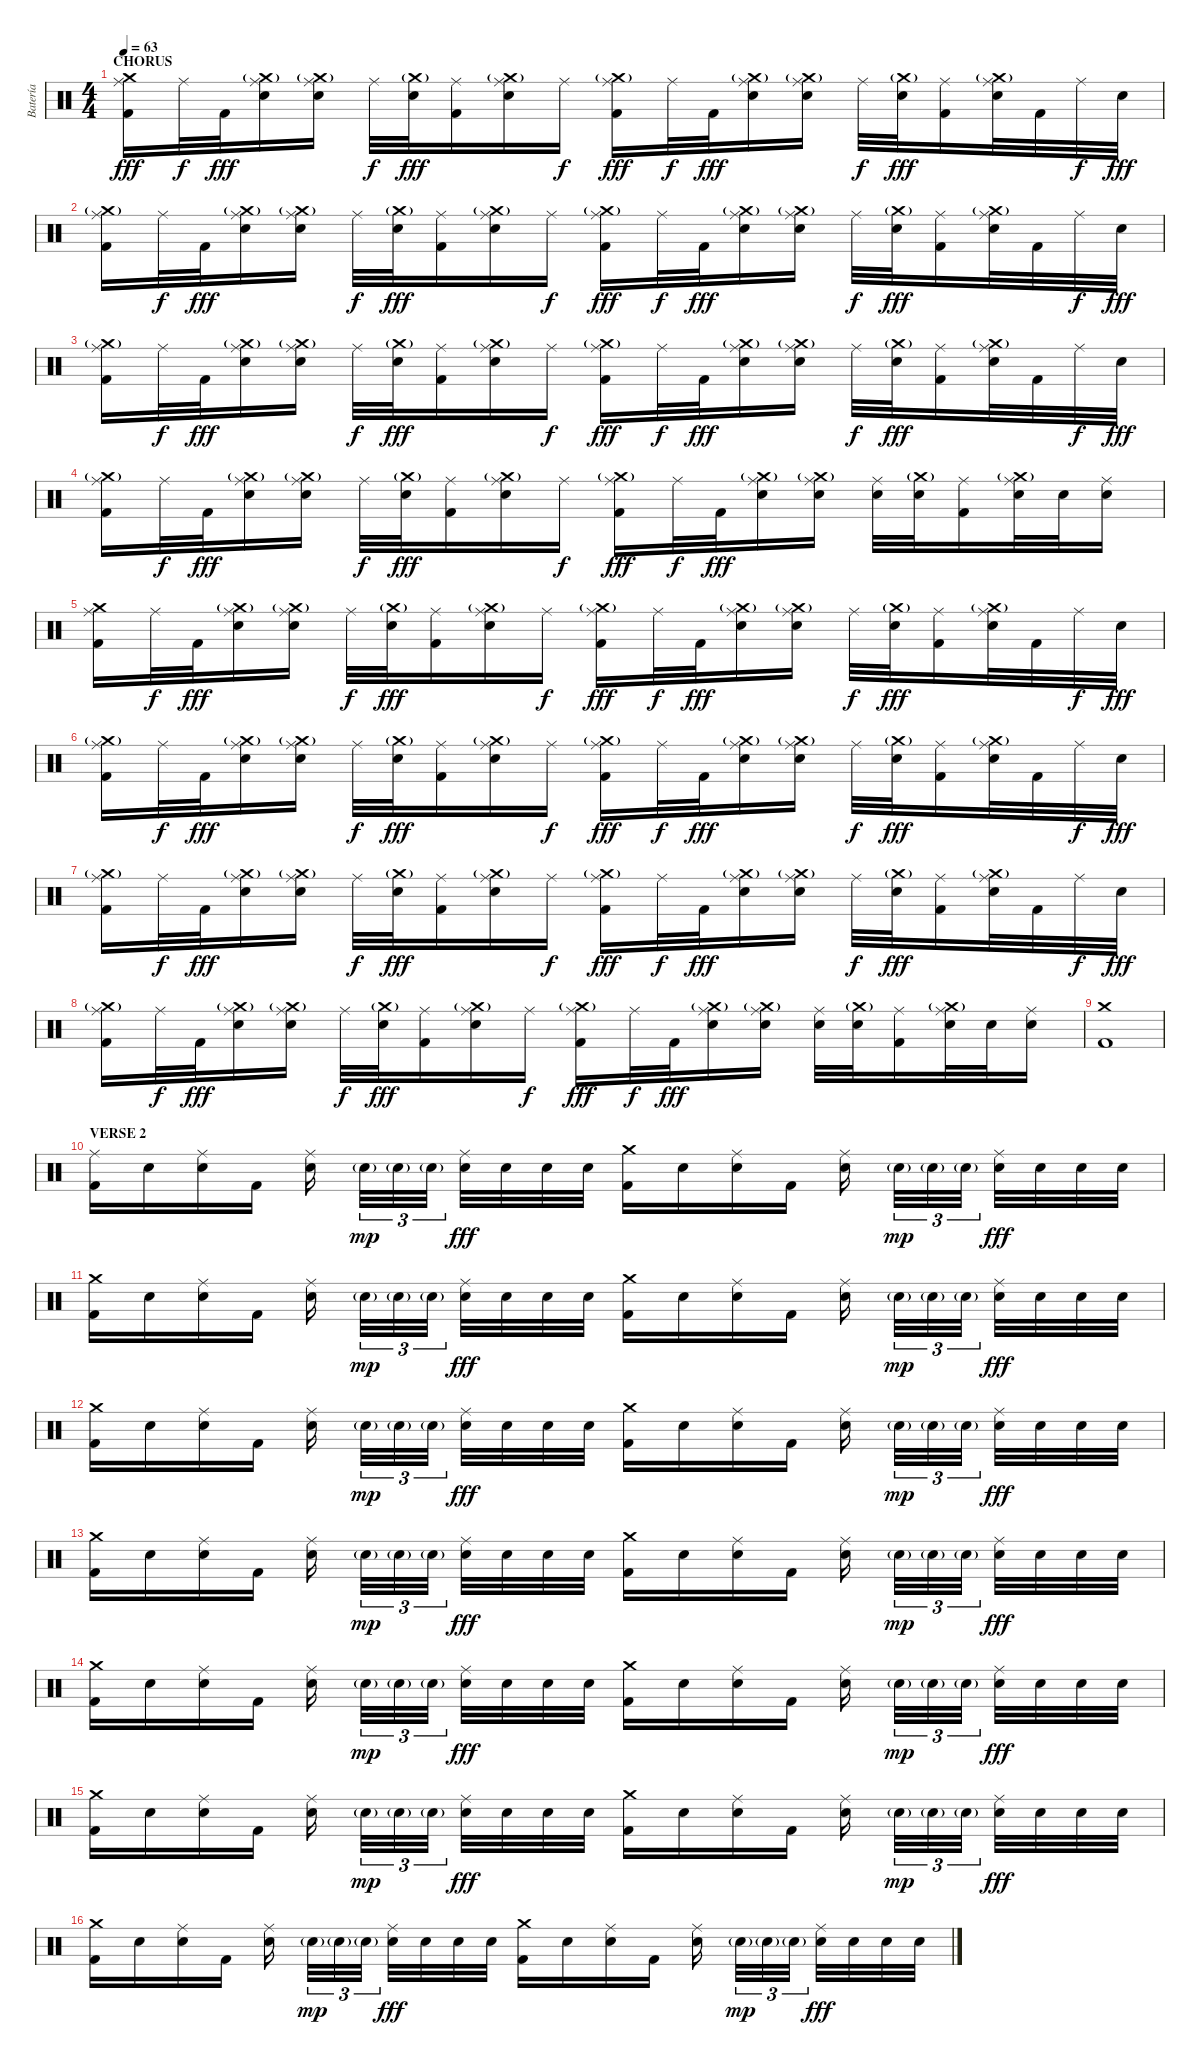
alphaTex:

\track ("Batería" "Batería") {instrument percussion}
\staff {score}
\articulation defaults
\ts (4 4)
\section ("" "CHORUS")
\tempo 63
\clef neutral
\ks c
("Crash medium (hit)" "Kick (hit) 2" "Ride (middle)").16{dy fff} "Ride (middle)".32{dy f} "Kick (hit) 2".32{dy fff} ("Crash medium (hit)"{g} "Electric Snare (hit)" "Ride (middle)").16 ("Crash medium (hit)"{g} "Electric Snare (hit)" "Ride (middle)").16 "Ride (middle)".32{dy f} ("Crash medium (hit)"{g} "Electric Snare (hit)").32{dy fff} ("Kick (hit) 2" "Ride (middle)").16 ("Crash medium (hit)"{g} "Electric Snare (hit)" "Ride (middle)").16 "Ride (middle)".16{dy f} ("Crash medium (hit)"{g} "Kick (hit) 2" "Ride (middle)").16{dy fff} "Ride (middle)".32{dy f} "Kick (hit) 2".32{dy fff} ("Crash medium (hit)"{g} "Electric Snare (hit)" "Ride (middle)").16 ("Crash medium (hit)"{g} "Electric Snare (hit)" "Ride (middle)").16 "Ride (middle)".32{dy f} ("Crash medium (hit)"{g} "Electric Snare (hit)").32{dy fff} ("Kick (hit) 2" "Ride (middle)").16 ("Crash medium (hit)"{g} "Electric Snare (hit)" "Ride (middle)").32 "Kick (hit) 2".32 "Ride (middle)".32{dy f} "Electric Snare (hit)".32{dy fff} |
("Crash medium (hit)"{g} "Kick (hit) 2" "Ride (middle)").16 "Ride (middle)".32{dy f} "Kick (hit) 2".32{dy fff} ("Crash medium (hit)"{g} "Electric Snare (hit)" "Ride (middle)").16 ("Crash medium (hit)"{g} "Electric Snare (hit)" "Ride (middle)").16 "Ride (middle)".32{dy f} ("Crash medium (hit)"{g} "Electric Snare (hit)").32{dy fff} ("Kick (hit) 2" "Ride (middle)").16 ("Crash medium (hit)"{g} "Electric Snare (hit)" "Ride (middle)").16 "Ride (middle)".16{dy f} ("Crash medium (hit)"{g} "Kick (hit) 2" "Ride (middle)").16{dy fff} "Ride (middle)".32{dy f} "Kick (hit) 2".32{dy fff} ("Crash medium (hit)"{g} "Electric Snare (hit)" "Ride (middle)").16 ("Crash medium (hit)"{g} "Electric Snare (hit)" "Ride (middle)").16 "Ride (middle)".32{dy f} ("Crash medium (hit)"{g} "Electric Snare (hit)").32{dy fff} ("Kick (hit) 2" "Ride (middle)").16 ("Crash medium (hit)"{g} "Electric Snare (hit)" "Ride (middle)").32 "Kick (hit) 2".32 "Ride (middle)".32{dy f} "Electric Snare (hit)".32{dy fff} |
("Crash medium (hit)"{g} "Kick (hit) 2" "Ride (middle)").16 "Ride (middle)".32{dy f} "Kick (hit) 2".32{dy fff} ("Crash medium (hit)"{g} "Electric Snare (hit)" "Ride (middle)").16 ("Crash medium (hit)"{g} "Electric Snare (hit)" "Ride (middle)").16 "Ride (middle)".32{dy f} ("Crash medium (hit)"{g} "Electric Snare (hit)").32{dy fff} ("Kick (hit) 2" "Ride (middle)").16 ("Crash medium (hit)"{g} "Electric Snare (hit)" "Ride (middle)").16 "Ride (middle)".16{dy f} ("Crash medium (hit)"{g} "Kick (hit) 2" "Ride (middle)").16{dy fff} "Ride (middle)".32{dy f} "Kick (hit) 2".32{dy fff} ("Crash medium (hit)"{g} "Electric Snare (hit)" "Ride (middle)").16 ("Crash medium (hit)"{g} "Electric Snare (hit)" "Ride (middle)").16 "Ride (middle)".32{dy f} ("Crash medium (hit)"{g} "Electric Snare (hit)").32{dy fff} ("Kick (hit) 2" "Ride (middle)").16 ("Crash medium (hit)"{g} "Electric Snare (hit)" "Ride (middle)").32 "Kick (hit) 2".32 "Ride (middle)".32{dy f} "Electric Snare (hit)".32{dy fff} |
("Crash medium (hit)"{g} "Kick (hit) 2" "Ride (middle)").16 "Ride (middle)".32{dy f} "Kick (hit) 2".32{dy fff} ("Crash medium (hit)"{g} "Electric Snare (hit)" "Ride (middle)").16 ("Crash medium (hit)"{g} "Electric Snare (hit)" "Ride (middle)").16 "Ride (middle)".32{dy f} ("Crash medium (hit)"{g} "Electric Snare (hit)").32{dy fff} ("Kick (hit) 2" "Ride (middle)").16 ("Crash medium (hit)"{g} "Electric Snare (hit)" "Ride (middle)").16 "Ride (middle)".16{dy f} ("Crash medium (hit)"{g} "Kick (hit) 2" "Ride (middle)").16{dy fff} "Ride (middle)".32{dy f} "Kick (hit) 2".32{dy fff} ("Crash medium (hit)"{g} "Electric Snare (hit)" "Ride (middle)").16 ("Crash medium (hit)"{g} "Electric Snare (hit)" "Ride (middle)").16 ("Electric Snare (hit)" "Ride (middle)").32 ("Crash medium (hit)"{g} "Electric Snare (hit)").32 ("Kick (hit) 2" "Ride (middle)").16 ("Crash medium (hit)"{g} "Electric Snare (hit)" "Ride (middle)").32 "Electric Snare (hit)".32 ("Electric Snare (hit)" "Ride (middle)").16 |
("Crash medium (hit)" "Kick (hit) 2" "Ride (middle)").16 "Ride (middle)".32{dy f} "Kick (hit) 2".32{dy fff} ("Crash medium (hit)"{g} "Electric Snare (hit)" "Ride (middle)").16 ("Crash medium (hit)"{g} "Electric Snare (hit)" "Ride (middle)").16 "Ride (middle)".32{dy f} ("Crash medium (hit)"{g} "Electric Snare (hit)").32{dy fff} ("Kick (hit) 2" "Ride (middle)").16 ("Crash medium (hit)"{g} "Electric Snare (hit)" "Ride (middle)").16 "Ride (middle)".16{dy f} ("Crash medium (hit)"{g} "Kick (hit) 2" "Ride (middle)").16{dy fff} "Ride (middle)".32{dy f} "Kick (hit) 2".32{dy fff} ("Crash medium (hit)"{g} "Electric Snare (hit)" "Ride (middle)").16 ("Crash medium (hit)"{g} "Electric Snare (hit)" "Ride (middle)").16 "Ride (middle)".32{dy f} ("Crash medium (hit)"{g} "Electric Snare (hit)").32{dy fff} ("Kick (hit) 2" "Ride (middle)").16 ("Crash medium (hit)"{g} "Electric Snare (hit)" "Ride (middle)").32 "Kick (hit) 2".32 "Ride (middle)".32{dy f} "Electric Snare (hit)".32{dy fff} |
("Crash medium (hit)"{g} "Kick (hit) 2" "Ride (middle)").16 "Ride (middle)".32{dy f} "Kick (hit) 2".32{dy fff} ("Crash medium (hit)"{g} "Electric Snare (hit)" "Ride (middle)").16 ("Crash medium (hit)"{g} "Electric Snare (hit)" "Ride (middle)").16 "Ride (middle)".32{dy f} ("Crash medium (hit)"{g} "Electric Snare (hit)").32{dy fff} ("Kick (hit) 2" "Ride (middle)").16 ("Crash medium (hit)"{g} "Electric Snare (hit)" "Ride (middle)").16 "Ride (middle)".16{dy f} ("Crash medium (hit)"{g} "Kick (hit) 2" "Ride (middle)").16{dy fff} "Ride (middle)".32{dy f} "Kick (hit) 2".32{dy fff} ("Crash medium (hit)"{g} "Electric Snare (hit)" "Ride (middle)").16 ("Crash medium (hit)"{g} "Electric Snare (hit)" "Ride (middle)").16 "Ride (middle)".32{dy f} ("Crash medium (hit)"{g} "Electric Snare (hit)").32{dy fff} ("Kick (hit) 2" "Ride (middle)").16 ("Crash medium (hit)"{g} "Electric Snare (hit)" "Ride (middle)").32 "Kick (hit) 2".32 "Ride (middle)".32{dy f} "Electric Snare (hit)".32{dy fff} |
("Crash medium (hit)"{g} "Kick (hit) 2" "Ride (middle)").16 "Ride (middle)".32{dy f} "Kick (hit) 2".32{dy fff} ("Crash medium (hit)"{g} "Electric Snare (hit)" "Ride (middle)").16 ("Crash medium (hit)"{g} "Electric Snare (hit)" "Ride (middle)").16 "Ride (middle)".32{dy f} ("Crash medium (hit)"{g} "Electric Snare (hit)").32{dy fff} ("Kick (hit) 2" "Ride (middle)").16 ("Crash medium (hit)"{g} "Electric Snare (hit)" "Ride (middle)").16 "Ride (middle)".16{dy f} ("Crash medium (hit)"{g} "Kick (hit) 2" "Ride (middle)").16{dy fff} "Ride (middle)".32{dy f} "Kick (hit) 2".32{dy fff} ("Crash medium (hit)"{g} "Electric Snare (hit)" "Ride (middle)").16 ("Crash medium (hit)"{g} "Electric Snare (hit)" "Ride (middle)").16 "Ride (middle)".32{dy f} ("Crash medium (hit)"{g} "Electric Snare (hit)").32{dy fff} ("Kick (hit) 2" "Ride (middle)").16 ("Crash medium (hit)"{g} "Electric Snare (hit)" "Ride (middle)").32 "Kick (hit) 2".32 "Ride (middle)".32{dy f} "Electric Snare (hit)".32{dy fff} |
("Crash medium (hit)"{g} "Kick (hit) 2" "Ride (middle)").16 "Ride (middle)".32{dy f} "Kick (hit) 2".32{dy fff} ("Crash medium (hit)"{g} "Electric Snare (hit)" "Ride (middle)").16 ("Crash medium (hit)"{g} "Electric Snare (hit)" "Ride (middle)").16 "Ride (middle)".32{dy f} ("Crash medium (hit)"{g} "Electric Snare (hit)").32{dy fff} ("Kick (hit) 2" "Ride (middle)").16 ("Crash medium (hit)"{g} "Electric Snare (hit)" "Ride (middle)").16 "Ride (middle)".16{dy f} ("Crash medium (hit)"{g} "Kick (hit) 2" "Ride (middle)").16{dy fff} "Ride (middle)".32{dy f} "Kick (hit) 2".32{dy fff} ("Crash medium (hit)"{g} "Electric Snare (hit)" "Ride (middle)").16 ("Crash medium (hit)"{g} "Electric Snare (hit)" "Ride (middle)").16 ("Electric Snare (hit)" "Ride (middle)").32 ("Crash medium (hit)"{g} "Electric Snare (hit)").32 ("Kick (hit) 2" "Ride (middle)").16 ("Crash medium (hit)"{g} "Electric Snare (hit)" "Ride (middle)").32 "Electric Snare (hit)".32 ("Electric Snare (hit)" "Ride (middle)").16 |
("Crash medium (hit)" "Kick (hit) 2").1 |
\section ("" "VERSE 2")
("Kick (hit) 2" "Ride (middle)").16 "Electric Snare (hit)".16 ("Electric Snare (hit)" "Ride (middle)").16 "Kick (hit) 2".16 ("Electric Snare (hit)" "Ride (middle)").16 "Electric Snare (hit)"{g}.32{tu (3 2) dy mp} "Electric Snare (hit)"{g}.32{tu (3 2)} "Electric Snare (hit)"{g}.32{tu (3 2)} ("Electric Snare (hit)" "Ride (middle)").32{dy fff} "Electric Snare (hit)".32 "Electric Snare (hit)".32 "Electric Snare (hit)".32 ("Crash medium (hit)" "Kick (hit) 2").16 "Electric Snare (hit)".16 ("Electric Snare (hit)" "Ride (middle)").16 "Kick (hit) 2".16 ("Electric Snare (hit)" "Ride (middle)").16 "Electric Snare (hit)"{g}.32{tu (3 2) dy mp} "Electric Snare (hit)"{g}.32{tu (3 2)} "Electric Snare (hit)"{g}.32{tu (3 2)} ("Electric Snare (hit)" "Ride (middle)").32{dy fff} "Electric Snare (hit)".32 "Electric Snare (hit)".32 "Electric Snare (hit)".32 |
("Crash medium (hit)" "Kick (hit) 2").16 "Electric Snare (hit)".16 ("Electric Snare (hit)" "Ride (middle)").16 "Kick (hit) 2".16 ("Electric Snare (hit)" "Ride (middle)").16 "Electric Snare (hit)"{g}.32{tu (3 2) dy mp} "Electric Snare (hit)"{g}.32{tu (3 2)} "Electric Snare (hit)"{g}.32{tu (3 2)} ("Electric Snare (hit)" "Ride (middle)").32{dy fff} "Electric Snare (hit)".32 "Electric Snare (hit)".32 "Electric Snare (hit)".32 ("Crash medium (hit)" "Kick (hit) 2").16 "Electric Snare (hit)".16 ("Electric Snare (hit)" "Ride (middle)").16 "Kick (hit) 2".16 ("Electric Snare (hit)" "Ride (middle)").16 "Electric Snare (hit)"{g}.32{tu (3 2) dy mp} "Electric Snare (hit)"{g}.32{tu (3 2)} "Electric Snare (hit)"{g}.32{tu (3 2)} ("Electric Snare (hit)" "Ride (middle)").32{dy fff} "Electric Snare (hit)".32 "Electric Snare (hit)".32 "Electric Snare (hit)".32 |
("Crash medium (hit)" "Kick (hit) 2").16 "Electric Snare (hit)".16 ("Electric Snare (hit)" "Ride (middle)").16 "Kick (hit) 2".16 ("Electric Snare (hit)" "Ride (middle)").16 "Electric Snare (hit)"{g}.32{tu (3 2) dy mp} "Electric Snare (hit)"{g}.32{tu (3 2)} "Electric Snare (hit)"{g}.32{tu (3 2)} ("Electric Snare (hit)" "Ride (middle)").32{dy fff} "Electric Snare (hit)".32 "Electric Snare (hit)".32 "Electric Snare (hit)".32 ("Crash medium (hit)" "Kick (hit) 2").16 "Electric Snare (hit)".16 ("Electric Snare (hit)" "Ride (middle)").16 "Kick (hit) 2".16 ("Electric Snare (hit)" "Ride (middle)").16 "Electric Snare (hit)"{g}.32{tu (3 2) dy mp} "Electric Snare (hit)"{g}.32{tu (3 2)} "Electric Snare (hit)"{g}.32{tu (3 2)} ("Electric Snare (hit)" "Ride (middle)").32{dy fff} "Electric Snare (hit)".32 "Electric Snare (hit)".32 "Electric Snare (hit)".32 |
("Crash medium (hit)" "Kick (hit) 2").16 "Electric Snare (hit)".16 ("Electric Snare (hit)" "Ride (middle)").16 "Kick (hit) 2".16 ("Electric Snare (hit)" "Ride (middle)").16 "Electric Snare (hit)"{g}.32{tu (3 2) dy mp} "Electric Snare (hit)"{g}.32{tu (3 2)} "Electric Snare (hit)"{g}.32{tu (3 2)} ("Electric Snare (hit)" "Ride (middle)").32{dy fff} "Electric Snare (hit)".32 "Electric Snare (hit)".32 "Electric Snare (hit)".32 ("Crash medium (hit)" "Kick (hit) 2").16 "Electric Snare (hit)".16 ("Electric Snare (hit)" "Ride (middle)").16 "Kick (hit) 2".16 ("Electric Snare (hit)" "Ride (middle)").16 "Electric Snare (hit)"{g}.32{tu (3 2) dy mp} "Electric Snare (hit)"{g}.32{tu (3 2)} "Electric Snare (hit)"{g}.32{tu (3 2)} ("Electric Snare (hit)" "Ride (middle)").32{dy fff} "Electric Snare (hit)".32 "Electric Snare (hit)".32 "Electric Snare (hit)".32 |
("Crash medium (hit)" "Kick (hit) 2").16 "Electric Snare (hit)".16 ("Electric Snare (hit)" "Ride (middle)").16 "Kick (hit) 2".16 ("Electric Snare (hit)" "Ride (middle)").16 "Electric Snare (hit)"{g}.32{tu (3 2) dy mp} "Electric Snare (hit)"{g}.32{tu (3 2)} "Electric Snare (hit)"{g}.32{tu (3 2)} ("Electric Snare (hit)" "Ride (middle)").32{dy fff} "Electric Snare (hit)".32 "Electric Snare (hit)".32 "Electric Snare (hit)".32 ("Crash medium (hit)" "Kick (hit) 2").16 "Electric Snare (hit)".16 ("Electric Snare (hit)" "Ride (middle)").16 "Kick (hit) 2".16 ("Electric Snare (hit)" "Ride (middle)").16 "Electric Snare (hit)"{g}.32{tu (3 2) dy mp} "Electric Snare (hit)"{g}.32{tu (3 2)} "Electric Snare (hit)"{g}.32{tu (3 2)} ("Electric Snare (hit)" "Ride (middle)").32{dy fff} "Electric Snare (hit)".32 "Electric Snare (hit)".32 "Electric Snare (hit)".32 |
("Crash medium (hit)" "Kick (hit) 2").16 "Electric Snare (hit)".16 ("Electric Snare (hit)" "Ride (middle)").16 "Kick (hit) 2".16 ("Electric Snare (hit)" "Ride (middle)").16 "Electric Snare (hit)"{g}.32{tu (3 2) dy mp} "Electric Snare (hit)"{g}.32{tu (3 2)} "Electric Snare (hit)"{g}.32{tu (3 2)} ("Electric Snare (hit)" "Ride (middle)").32{dy fff} "Electric Snare (hit)".32 "Electric Snare (hit)".32 "Electric Snare (hit)".32 ("Crash medium (hit)" "Kick (hit) 2").16 "Electric Snare (hit)".16 ("Electric Snare (hit)" "Ride (middle)").16 "Kick (hit) 2".16 ("Electric Snare (hit)" "Ride (middle)").16 "Electric Snare (hit)"{g}.32{tu (3 2) dy mp} "Electric Snare (hit)"{g}.32{tu (3 2)} "Electric Snare (hit)"{g}.32{tu (3 2)} ("Electric Snare (hit)" "Ride (middle)").32{dy fff} "Electric Snare (hit)".32 "Electric Snare (hit)".32 "Electric Snare (hit)".32 |
("Crash medium (hit)" "Kick (hit) 2").16 "Electric Snare (hit)".16 ("Electric Snare (hit)" "Ride (middle)").16 "Kick (hit) 2".16 ("Electric Snare (hit)" "Ride (middle)").16 "Electric Snare (hit)"{g}.32{tu (3 2) dy mp} "Electric Snare (hit)"{g}.32{tu (3 2)} "Electric Snare (hit)"{g}.32{tu (3 2)} ("Electric Snare (hit)" "Ride (middle)").32{dy fff} "Electric Snare (hit)".32 "Electric Snare (hit)".32 "Electric Snare (hit)".32 ("Crash medium (hit)" "Kick (hit) 2").16 "Electric Snare (hit)".16 ("Electric Snare (hit)" "Ride (middle)").16 "Kick (hit) 2".16 ("Electric Snare (hit)" "Ride (middle)").16 "Electric Snare (hit)"{g}.32{tu (3 2) dy mp} "Electric Snare (hit)"{g}.32{tu (3 2)} "Electric Snare (hit)"{g}.32{tu (3 2)} ("Electric Snare (hit)" "Ride (middle)").32{dy fff} "Electric Snare (hit)".32 "Electric Snare (hit)".32 "Electric Snare (hit)".32
